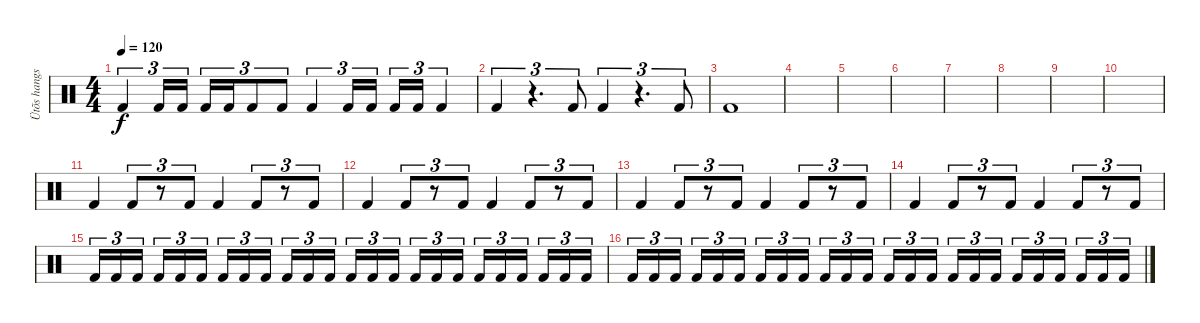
\track ("Ütõs hangszer" "Ütõs hangs") {instrument percussion}
\staff {score}
\articulation defaults
\ts (4 4)
\tempo 120
\clef neutral
\ks c "Kick (hit) 2".4{tu (3 2) dy f} "Kick (hit) 2".16{tu (3 2)} "Kick (hit) 2".16{tu (3 2)} "Kick (hit) 2".16{tu (3 2)} "Kick (hit) 2".16{tu (3 2)} "Kick (hit) 2".8{tu (3 2)} "Kick (hit) 2".8{tu (3 2)} "Kick (hit) 2".4{tu (3 2)} "Kick (hit) 2".16{tu (3 2)} "Kick (hit) 2".16{tu (3 2)} "Kick (hit) 2".16{tu (3 2)} "Kick (hit) 2".16{tu (3 2)} "Kick (hit) 2".4{tu (3 2)}
|
"Kick (hit) 2".4{tu (3 2)} r.4{d tu (3 2)} "Kick (hit) 2".8{tu (3 2)} "Kick (hit) 2".4{tu (3 2)} r.4{d tu (3 2)} "Kick (hit) 2".8{tu (3 2)} |
"Kick (hit) 2".1 |
|
|
|
|
|
|
|
"Kick (hit) 2".4 "Kick (hit) 2".8{tu (3 2)} r.8{tu (3 2)} "Kick (hit) 2".8{tu (3 2)} "Kick (hit) 2".4 "Kick (hit) 2".8{tu (3 2)} r.8{tu (3 2)} "Kick (hit) 2".8{tu (3 2)} |
"Kick (hit) 2".4 "Kick (hit) 2".8{tu (3 2)} r.8{tu (3 2)} "Kick (hit) 2".8{tu (3 2)} "Kick (hit) 2".4 "Kick (hit) 2".8{tu (3 2)} r.8{tu (3 2)} "Kick (hit) 2".8{tu (3 2)} |
"Kick (hit) 2".4 "Kick (hit) 2".8{tu (3 2)} r.8{tu (3 2)} "Kick (hit) 2".8{tu (3 2)} "Kick (hit) 2".4 "Kick (hit) 2".8{tu (3 2)} r.8{tu (3 2)} "Kick (hit) 2".8{tu (3 2)} |
"Kick (hit) 2".4 "Kick (hit) 2".8{tu (3 2)} r.8{tu (3 2)} "Kick (hit) 2".8{tu (3 2)} "Kick (hit) 2".4 "Kick (hit) 2".8{tu (3 2)} r.8{tu (3 2)} "Kick (hit) 2".8{tu (3 2)} |
"Kick (hit) 2".16{tu (3 2)} "Kick (hit) 2".16{tu (3 2)} "Kick (hit) 2".16{tu (3 2)} "Kick (hit) 2".16{tu (3 2)} "Kick (hit) 2".16{tu (3 2)} "Kick (hit) 2".16{tu (3 2)} "Kick (hit) 2".16{tu (3 2)} "Kick (hit) 2".16{tu (3 2)} "Kick (hit) 2".16{tu (3 2)} "Kick (hit) 2".16{tu (3 2)} "Kick (hit) 2".16{tu (3 2)} "Kick (hit) 2".16{tu (3 2)} "Kick (hit) 2".16{tu (3 2)} "Kick (hit) 2".16{tu (3 2)} "Kick (hit) 2".16{tu (3 2)} "Kick (hit) 2".16{tu (3 2)} "Kick (hit) 2".16{tu (3 2)} "Kick (hit) 2".16{tu (3 2)} "Kick (hit) 2".16{tu (3 2)} "Kick (hit) 2".16{tu (3 2)} "Kick (hit) 2".16{tu (3 2)} "Kick (hit) 2".16{tu (3 2)} "Kick (hit) 2".16{tu (3 2)} "Kick (hit) 2".16{tu (3 2)} |
"Kick (hit) 2".16{tu (3 2)} "Kick (hit) 2".16{tu (3 2)} "Kick (hit) 2".16{tu (3 2)} "Kick (hit) 2".16{tu (3 2)} "Kick (hit) 2".16{tu (3 2)} "Kick (hit) 2".16{tu (3 2)} "Kick (hit) 2".16{tu (3 2)} "Kick (hit) 2".16{tu (3 2)} "Kick (hit) 2".16{tu (3 2)} "Kick (hit) 2".16{tu (3 2)} "Kick (hit) 2".16{tu (3 2)} "Kick (hit) 2".16{tu (3 2)} "Kick (hit) 2".16{tu (3 2)} "Kick (hit) 2".16{tu (3 2)} "Kick (hit) 2".16{tu (3 2)} "Kick (hit) 2".16{tu (3 2)} "Kick (hit) 2".16{tu (3 2)} "Kick (hit) 2".16{tu (3 2)} "Kick (hit) 2".16{tu (3 2)} "Kick (hit) 2".16{tu (3 2)} "Kick (hit) 2".16{tu (3 2)} "Kick (hit) 2".16{tu (3 2)} "Kick (hit) 2".16{tu (3 2)} "Kick (hit) 2".16{tu (3 2)}
